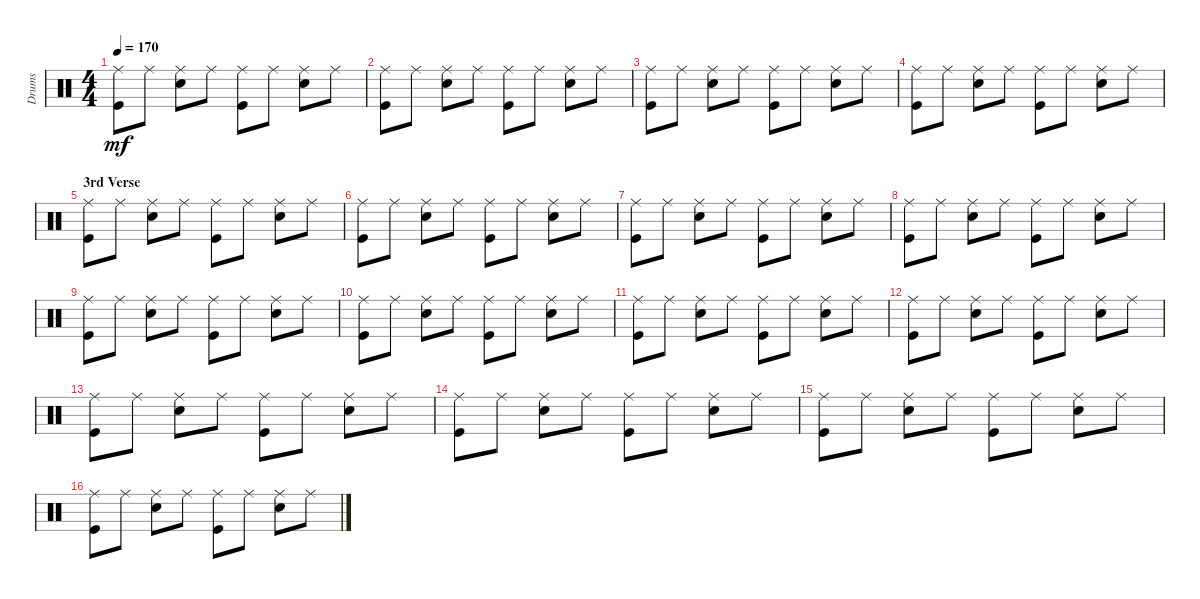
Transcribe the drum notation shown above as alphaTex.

\track ("Drums" "Drums") {instrument percussion}
\staff {score}
\articulation defaults
\ts (4 4)
\tempo 170
\clef neutral
\ks c
("Ride (middle)" "Kick (hit)").8{dy mf} "Ride (middle)".8 ("Ride (middle)" "Snare (hit) 2").8 "Ride (middle)".8 ("Ride (middle)" "Kick (hit)").8 "Ride (middle)".8 ("Ride (middle)" "Snare (hit) 2").8 "Ride (middle)".8 |
("Ride (middle)" "Kick (hit)").8 "Ride (middle)".8 ("Ride (middle)" "Snare (hit) 2").8 "Ride (middle)".8 ("Ride (middle)" "Kick (hit)").8 "Ride (middle)".8 ("Ride (middle)" "Snare (hit) 2").8 "Ride (middle)".8 |
("Ride (middle)" "Kick (hit)").8 "Ride (middle)".8 ("Ride (middle)" "Snare (hit) 2").8 "Ride (middle)".8 ("Ride (middle)" "Kick (hit)").8 "Ride (middle)".8 ("Ride (middle)" "Snare (hit) 2").8 "Ride (middle)".8 |
("Ride (middle)" "Kick (hit)").8 "Ride (middle)".8 ("Ride (middle)" "Snare (hit) 2").8 "Ride (middle)".8 ("Ride (middle)" "Kick (hit)").8 "Ride (middle)".8 ("Ride (middle)" "Snare (hit) 2").8 "Ride (middle)".8 |
\section ("" "3rd Verse")
("Ride (middle)" "Kick (hit)").8 "Ride (middle)".8 ("Ride (middle)" "Snare (hit) 2").8 "Ride (middle)".8 ("Ride (middle)" "Kick (hit)").8 "Ride (middle)".8 ("Ride (middle)" "Snare (hit) 2").8 "Ride (middle)".8 |
("Ride (middle)" "Kick (hit)").8 "Ride (middle)".8 ("Ride (middle)" "Snare (hit) 2").8 "Ride (middle)".8 ("Ride (middle)" "Kick (hit)").8 "Ride (middle)".8 ("Ride (middle)" "Snare (hit) 2").8 "Ride (middle)".8 |
("Ride (middle)" "Kick (hit)").8 "Ride (middle)".8 ("Ride (middle)" "Snare (hit) 2").8 "Ride (middle)".8 ("Ride (middle)" "Kick (hit)").8 "Ride (middle)".8 ("Ride (middle)" "Snare (hit) 2").8 "Ride (middle)".8 |
("Ride (middle)" "Kick (hit)").8 "Ride (middle)".8 ("Ride (middle)" "Snare (hit) 2").8 "Ride (middle)".8 ("Ride (middle)" "Kick (hit)").8 "Ride (middle)".8 ("Ride (middle)" "Snare (hit) 2").8 "Ride (middle)".8 |
("Ride (middle)" "Kick (hit)").8 "Ride (middle)".8 ("Ride (middle)" "Snare (hit) 2").8 "Ride (middle)".8 ("Ride (middle)" "Kick (hit)").8 "Ride (middle)".8 ("Ride (middle)" "Snare (hit) 2").8 "Ride (middle)".8 |
("Ride (middle)" "Kick (hit)").8 "Ride (middle)".8 ("Ride (middle)" "Snare (hit) 2").8 "Ride (middle)".8 ("Ride (middle)" "Kick (hit)").8 "Ride (middle)".8 ("Ride (middle)" "Snare (hit) 2").8 "Ride (middle)".8 |
("Ride (middle)" "Kick (hit)").8 "Ride (middle)".8 ("Ride (middle)" "Snare (hit) 2").8 "Ride (middle)".8 ("Ride (middle)" "Kick (hit)").8 "Ride (middle)".8 ("Ride (middle)" "Snare (hit) 2").8 "Ride (middle)".8 |
("Ride (middle)" "Kick (hit)").8 "Ride (middle)".8 ("Ride (middle)" "Snare (hit) 2").8 "Ride (middle)".8 ("Ride (middle)" "Kick (hit)").8 "Ride (middle)".8 ("Ride (middle)" "Snare (hit) 2").8 "Ride (middle)".8 |
("Ride (middle)" "Kick (hit)").8 "Ride (middle)".8 ("Ride (middle)" "Snare (hit) 2").8 "Ride (middle)".8 ("Ride (middle)" "Kick (hit)").8 "Ride (middle)".8 ("Ride (middle)" "Snare (hit) 2").8 "Ride (middle)".8 |
("Ride (middle)" "Kick (hit)").8 "Ride (middle)".8 ("Ride (middle)" "Snare (hit) 2").8 "Ride (middle)".8 ("Ride (middle)" "Kick (hit)").8 "Ride (middle)".8 ("Ride (middle)" "Snare (hit) 2").8 "Ride (middle)".8 |
("Ride (middle)" "Kick (hit)").8 "Ride (middle)".8 ("Ride (middle)" "Snare (hit) 2").8 "Ride (middle)".8 ("Ride (middle)" "Kick (hit)").8 "Ride (middle)".8 ("Ride (middle)" "Snare (hit) 2").8 "Ride (middle)".8 |
("Ride (middle)" "Kick (hit)").8 "Ride (middle)".8 ("Ride (middle)" "Snare (hit) 2").8 "Ride (middle)".8 ("Ride (middle)" "Kick (hit)").8 "Ride (middle)".8 ("Ride (middle)" "Snare (hit) 2").8 "Ride (middle)".8
